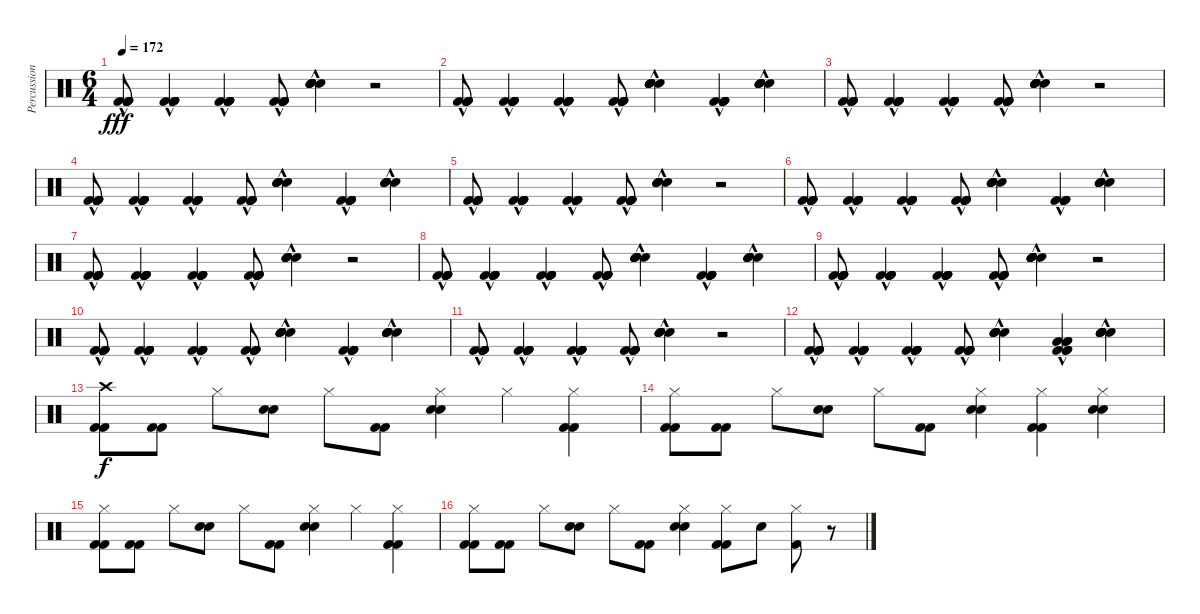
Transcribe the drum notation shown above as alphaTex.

\track ("Percussion" "Percussion") {instrument percussion}
\staff {score}
\articulation defaults
\ts (6 4)
\tempo 172
\clef neutral
\ks c
("Kick (hit) 2"{hac} "Kick (hit) 2" "Kick (hit) 2" "Kick (hit) 2" "Kick (hit) 2").8{dy fff} ("Kick (hit) 2"{hac} "Kick (hit) 2" "Kick (hit) 2" "Kick (hit) 2" "Kick (hit) 2").4 ("Kick (hit) 2"{hac} "Kick (hit) 2" "Kick (hit) 2" "Kick (hit) 2" "Kick (hit) 2").4 ("Kick (hit) 2"{hac} "Kick (hit) 2" "Kick (hit) 2" "Kick (hit) 2" "Kick (hit) 2").8 ("Electric Snare (hit)"{hac} "Electric Snare (hit)" "Electric Snare (hit)" "Electric Snare (hit)" "Electric Snare (hit)").4 r.2 |
("Kick (hit) 2"{hac} "Kick (hit) 2" "Kick (hit) 2" "Kick (hit) 2" "Kick (hit) 2").8 ("Kick (hit) 2"{hac} "Kick (hit) 2" "Kick (hit) 2" "Kick (hit) 2" "Kick (hit) 2").4 ("Kick (hit) 2"{hac} "Kick (hit) 2" "Kick (hit) 2" "Kick (hit) 2" "Kick (hit) 2").4 ("Kick (hit) 2"{hac} "Kick (hit) 2" "Kick (hit) 2" "Kick (hit) 2" "Kick (hit) 2").8 ("Electric Snare (hit)"{hac} "Electric Snare (hit)" "Electric Snare (hit)" "Electric Snare (hit)" "Electric Snare (hit)").4 ("Kick (hit) 2"{hac} "Kick (hit) 2" "Kick (hit) 2" "Kick (hit) 2" "Kick (hit) 2").4 ("Electric Snare (hit)"{hac} "Electric Snare (hit)" "Electric Snare (hit)" "Electric Snare (hit)" "Electric Snare (hit)").4 |
("Kick (hit) 2"{hac} "Kick (hit) 2" "Kick (hit) 2" "Kick (hit) 2" "Kick (hit) 2").8 ("Kick (hit) 2"{hac} "Kick (hit) 2" "Kick (hit) 2" "Kick (hit) 2" "Kick (hit) 2").4 ("Kick (hit) 2"{hac} "Kick (hit) 2" "Kick (hit) 2" "Kick (hit) 2" "Kick (hit) 2").4 ("Kick (hit) 2"{hac} "Kick (hit) 2" "Kick (hit) 2" "Kick (hit) 2" "Kick (hit) 2").8 ("Electric Snare (hit)"{hac} "Electric Snare (hit)" "Electric Snare (hit)" "Electric Snare (hit)" "Electric Snare (hit)").4 r.2 |
("Kick (hit) 2"{hac} "Kick (hit) 2" "Kick (hit) 2" "Kick (hit) 2" "Kick (hit) 2").8 ("Kick (hit) 2"{hac} "Kick (hit) 2" "Kick (hit) 2" "Kick (hit) 2" "Kick (hit) 2").4 ("Kick (hit) 2"{hac} "Kick (hit) 2" "Kick (hit) 2" "Kick (hit) 2" "Kick (hit) 2").4 ("Kick (hit) 2"{hac} "Kick (hit) 2" "Kick (hit) 2" "Kick (hit) 2" "Kick (hit) 2").8 ("Electric Snare (hit)"{hac} "Electric Snare (hit)" "Electric Snare (hit)" "Electric Snare (hit)" "Electric Snare (hit)").4 ("Kick (hit) 2"{hac} "Kick (hit) 2" "Kick (hit) 2" "Kick (hit) 2" "Kick (hit) 2").4 ("Electric Snare (hit)"{hac} "Electric Snare (hit)" "Electric Snare (hit)" "Electric Snare (hit)" "Electric Snare (hit)").4 |
("Kick (hit) 2"{hac} "Kick (hit) 2" "Kick (hit) 2" "Kick (hit) 2" "Kick (hit) 2").8 ("Kick (hit) 2"{hac} "Kick (hit) 2" "Kick (hit) 2" "Kick (hit) 2" "Kick (hit) 2").4 ("Kick (hit) 2"{hac} "Kick (hit) 2" "Kick (hit) 2" "Kick (hit) 2" "Kick (hit) 2").4 ("Kick (hit) 2"{hac} "Kick (hit) 2" "Kick (hit) 2" "Kick (hit) 2" "Kick (hit) 2").8 ("Electric Snare (hit)"{hac} "Electric Snare (hit)" "Electric Snare (hit)" "Electric Snare (hit)" "Electric Snare (hit)").4 r.2 |
("Kick (hit) 2"{hac} "Kick (hit) 2" "Kick (hit) 2" "Kick (hit) 2" "Kick (hit) 2").8 ("Kick (hit) 2"{hac} "Kick (hit) 2" "Kick (hit) 2" "Kick (hit) 2" "Kick (hit) 2").4 ("Kick (hit) 2"{hac} "Kick (hit) 2" "Kick (hit) 2" "Kick (hit) 2" "Kick (hit) 2").4 ("Kick (hit) 2"{hac} "Kick (hit) 2" "Kick (hit) 2" "Kick (hit) 2" "Kick (hit) 2").8 ("Electric Snare (hit)"{hac} "Electric Snare (hit)" "Electric Snare (hit)" "Electric Snare (hit)" "Electric Snare (hit)").4 ("Kick (hit) 2"{hac} "Kick (hit) 2" "Kick (hit) 2" "Kick (hit) 2" "Kick (hit) 2").4 ("Electric Snare (hit)"{hac} "Electric Snare (hit)" "Electric Snare (hit)" "Electric Snare (hit)" "Electric Snare (hit)").4 |
("Kick (hit) 2"{hac} "Kick (hit) 2" "Kick (hit) 2" "Kick (hit) 2" "Kick (hit) 2").8 ("Kick (hit) 2"{hac} "Kick (hit) 2" "Kick (hit) 2" "Kick (hit) 2" "Kick (hit) 2").4 ("Kick (hit) 2"{hac} "Kick (hit) 2" "Kick (hit) 2" "Kick (hit) 2" "Kick (hit) 2").4 ("Kick (hit) 2"{hac} "Kick (hit) 2" "Kick (hit) 2" "Kick (hit) 2" "Kick (hit) 2").8 ("Electric Snare (hit)"{hac} "Electric Snare (hit)" "Electric Snare (hit)" "Electric Snare (hit)" "Electric Snare (hit)").4 r.2 |
("Kick (hit) 2"{hac} "Kick (hit) 2" "Kick (hit) 2" "Kick (hit) 2" "Kick (hit) 2").8 ("Kick (hit) 2"{hac} "Kick (hit) 2" "Kick (hit) 2" "Kick (hit) 2" "Kick (hit) 2").4 ("Kick (hit) 2"{hac} "Kick (hit) 2" "Kick (hit) 2" "Kick (hit) 2" "Kick (hit) 2").4 ("Kick (hit) 2"{hac} "Kick (hit) 2" "Kick (hit) 2" "Kick (hit) 2" "Kick (hit) 2").8 ("Electric Snare (hit)"{hac} "Electric Snare (hit)" "Electric Snare (hit)" "Electric Snare (hit)" "Electric Snare (hit)").4 ("Kick (hit) 2"{hac} "Kick (hit) 2" "Kick (hit) 2" "Kick (hit) 2" "Kick (hit) 2").4 ("Electric Snare (hit)"{hac} "Electric Snare (hit)" "Electric Snare (hit)" "Electric Snare (hit)" "Electric Snare (hit)").4 |
("Kick (hit) 2"{hac} "Kick (hit) 2" "Kick (hit) 2" "Kick (hit) 2" "Kick (hit) 2").8 ("Kick (hit) 2"{hac} "Kick (hit) 2" "Kick (hit) 2" "Kick (hit) 2" "Kick (hit) 2").4 ("Kick (hit) 2"{hac} "Kick (hit) 2" "Kick (hit) 2" "Kick (hit) 2" "Kick (hit) 2").4 ("Kick (hit) 2"{hac} "Kick (hit) 2" "Kick (hit) 2" "Kick (hit) 2" "Kick (hit) 2").8 ("Electric Snare (hit)"{hac} "Electric Snare (hit)" "Electric Snare (hit)" "Electric Snare (hit)" "Electric Snare (hit)").4 r.2 |
("Kick (hit) 2"{hac} "Kick (hit) 2" "Kick (hit) 2" "Kick (hit) 2" "Kick (hit) 2").8 ("Kick (hit) 2"{hac} "Kick (hit) 2" "Kick (hit) 2" "Kick (hit) 2" "Kick (hit) 2").4 ("Kick (hit) 2"{hac} "Kick (hit) 2" "Kick (hit) 2" "Kick (hit) 2" "Kick (hit) 2").4 ("Kick (hit) 2"{hac} "Kick (hit) 2" "Kick (hit) 2" "Kick (hit) 2" "Kick (hit) 2").8 ("Electric Snare (hit)"{hac} "Electric Snare (hit)" "Electric Snare (hit)" "Electric Snare (hit)" "Electric Snare (hit)").4 ("Kick (hit) 2"{hac} "Kick (hit) 2" "Kick (hit) 2" "Kick (hit) 2" "Kick (hit) 2").4 ("Electric Snare (hit)"{hac} "Electric Snare (hit)" "Electric Snare (hit)" "Electric Snare (hit)" "Electric Snare (hit)").4 |
("Kick (hit) 2"{hac} "Kick (hit) 2" "Kick (hit) 2" "Kick (hit) 2" "Kick (hit) 2").8 ("Kick (hit) 2"{hac} "Kick (hit) 2" "Kick (hit) 2" "Kick (hit) 2" "Kick (hit) 2").4 ("Kick (hit) 2"{hac} "Kick (hit) 2" "Kick (hit) 2" "Kick (hit) 2" "Kick (hit) 2").4 ("Kick (hit) 2"{hac} "Kick (hit) 2" "Kick (hit) 2" "Kick (hit) 2" "Kick (hit) 2").8 ("Electric Snare (hit)"{hac} "Electric Snare (hit)" "Electric Snare (hit)" "Electric Snare (hit)" "Electric Snare (hit)").4 r.2 |
("Kick (hit) 2"{hac} "Kick (hit) 2" "Kick (hit) 2" "Kick (hit) 2" "Kick (hit) 2").8 ("Kick (hit) 2"{hac} "Kick (hit) 2" "Kick (hit) 2" "Kick (hit) 2" "Kick (hit) 2").4 ("Kick (hit) 2"{hac} "Kick (hit) 2" "Kick (hit) 2" "Kick (hit) 2" "Kick (hit) 2").4 ("Kick (hit) 2"{hac} "Kick (hit) 2" "Kick (hit) 2" "Kick (hit) 2" "Kick (hit) 2").8 ("Electric Snare (hit)"{hac} "Electric Snare (hit)" "Electric Snare (hit)" "Electric Snare (hit)" "Electric Snare (hit)").4 ("Low Tom (hit)" "Low Tom (hit)"{hac} "Low Tom (hit)" "Kick (hit) 2" "Kick (hit) 2" "Kick (hit) 2").4 ("Electric Snare (hit)"{hac} "Electric Snare (hit)" "Electric Snare (hit)" "Electric Snare (hit)" "Electric Snare (hit)").4 |
("Crash high (hit)" "Kick (hit) 2" "Kick (hit) 2").8{dy f volume 16} ("Kick (hit) 2" "Kick (hit) 2").8 "Hi-Hat (closed)".8 ("Electric Snare (hit)" "Electric Snare (hit)").8 "Hi-Hat (closed)".8 ("Kick (hit) 2" "Kick (hit) 2").8 ("Hi-Hat (closed)" "Electric Snare (hit)" "Electric Snare (hit)").4 "Hi-Hat (closed)".4 ("Hi-Hat (closed)" "Kick (hit) 2" "Kick (hit) 2").4 |
("Hi-Hat (closed)" "Kick (hit) 2" "Kick (hit) 2").8 ("Kick (hit) 2" "Kick (hit) 2").8 "Hi-Hat (closed)".8 ("Electric Snare (hit)" "Electric Snare (hit)").8 "Hi-Hat (closed)".8 ("Kick (hit) 2" "Kick (hit) 2").8 ("Hi-Hat (closed)" "Electric Snare (hit)" "Electric Snare (hit)").4 ("Hi-Hat (closed)" "Kick (hit) 2" "Kick (hit) 2").4 ("Hi-Hat (closed)" "Electric Snare (hit)" "Electric Snare (hit)").4 |
("Hi-Hat (closed)" "Kick (hit) 2" "Kick (hit) 2").8 ("Kick (hit) 2" "Kick (hit) 2").8 "Hi-Hat (closed)".8 ("Electric Snare (hit)" "Electric Snare (hit)").8 "Hi-Hat (closed)".8 ("Kick (hit) 2" "Kick (hit) 2").8 ("Hi-Hat (closed)" "Electric Snare (hit)" "Electric Snare (hit)").4 "Hi-Hat (closed)".4 ("Hi-Hat (closed)" "Kick (hit) 2" "Kick (hit) 2").4 |
("Hi-Hat (closed)" "Kick (hit) 2" "Kick (hit) 2").8 ("Kick (hit) 2" "Kick (hit) 2").8 "Hi-Hat (closed)".8 ("Electric Snare (hit)" "Electric Snare (hit)").8 "Hi-Hat (closed)".8 ("Kick (hit) 2" "Kick (hit) 2").8 ("Hi-Hat (closed)" "Electric Snare (hit)" "Electric Snare (hit)").4 ("Hi-Hat (closed)" "Kick (hit) 2" "Kick (hit) 2").8 "Electric Snare (hit)".8 ("Hi-Hat (closed)" "Kick (hit) 2").8 r.8
